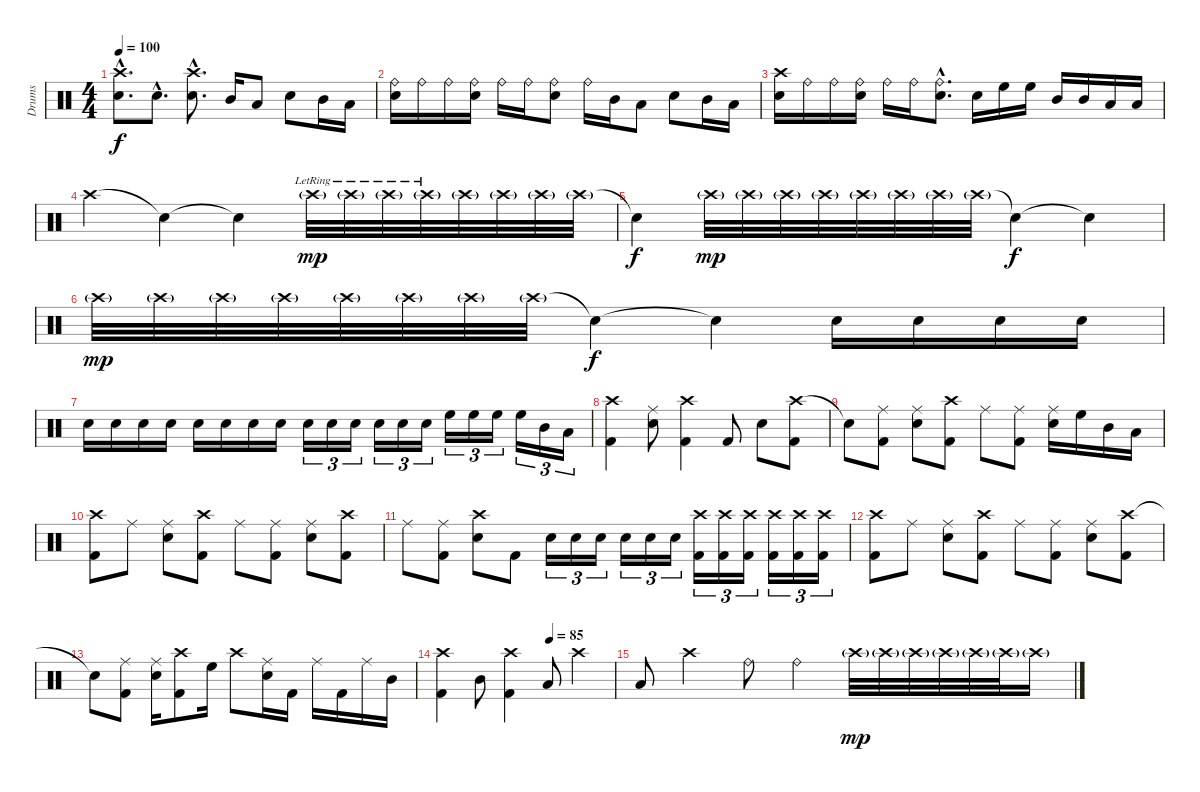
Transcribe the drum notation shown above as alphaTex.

\track ("Drums" "Drums") {instrument percussion}
\staff {score}
\articulation defaults
\ts (4 4)
\tempo 100
\clef neutral
\ks c
("Crash high (hit)"{hac} "Snare (hit) 2"{hac}).8{d dy f} "Snare (hit) 2"{hac}.8{d} ("Crash high (hit)"{hac} "Snare (hit) 2"{hac}).8{d} "Mid Tom (hit)".16 "Low Floor Tom (hit)".8 "Snare (hit) 2".8 "Mid Tom (hit)".16 "Low Floor Tom (hit)".16 |
("Ride (bell)" "Snare (hit) 2").16 "Ride (bell)".16 "Ride (bell)".16 ("Ride (bell)" "Snare (hit) 2").16 "Ride (bell)".16 "Ride (bell)".16 ("Ride (bell)" "Snare (hit) 2").8 "Ride (bell)".16 "Mid Tom (hit)".16 "Low Floor Tom (hit)".8 "Snare (hit) 2".8 "Mid Tom (hit)".16 "Low Floor Tom (hit)".16 |
("Crash high (hit)" "Snare (hit) 2").16 "Ride (bell)".16 "Ride (bell)".16 ("Ride (bell)" "Snare (hit) 2").16 "Ride (bell)".16 "Ride (bell)".16 ("Ride (bell)"{hac} "Snare (hit) 2"{hac}).8{d} "Snare (hit) 2".16 "High Floor Tom (hit)".16 "High Floor Tom (hit)".16 "Mid Tom (hit)".16 "Mid Tom (hit)".16 "Low Floor Tom (hit)".16 "Low Floor Tom (hit)".16 |
"Crash high (hit)".4 "Snare (hit)"{t}.4 "Snare (hit)"{t}.4 "Crash high (hit)"{g lr}.32{dy mp} "Crash high (hit)"{g lr}.32 "Crash high (hit)"{g lr}.32 "Crash high (hit)"{g lr}.32 "Crash high (hit)"{g}.32 "Crash high (hit)"{g}.32 "Crash high (hit)"{g}.32 "Crash high (hit)"{g}.32 |
"Snare (hit)"{t}.4{dy f} "Crash high (hit)"{g}.32{dy mp} "Crash high (hit)"{g}.32 "Crash high (hit)"{g}.32 "Crash high (hit)"{g}.32 "Crash high (hit)"{g}.32 "Crash high (hit)"{g}.32 "Crash high (hit)"{g}.32 "Crash high (hit)"{g}.32 "Snare (hit)"{t}.4{dy f} "Snare (hit)"{t}.4 |
"Crash high (hit)"{g}.32{dy mp} "Crash high (hit)"{g}.32 "Crash high (hit)"{g}.32 "Crash high (hit)"{g}.32 "Crash high (hit)"{g}.32 "Crash high (hit)"{g}.32 "Crash high (hit)"{g}.32 "Crash high (hit)"{g}.32 "Snare (hit)"{t}.4{dy f} "Snare (hit)"{t}.4 "Snare (hit) 2".16 "Snare (hit) 2".16 "Snare (hit) 2".16 "Snare (hit) 2".16 |
"Snare (hit) 2".16 "Snare (hit) 2".16 "Snare (hit) 2".16 "Snare (hit) 2".16 "Snare (hit) 2".16 "Snare (hit) 2".16 "Snare (hit) 2".16 "Snare (hit) 2".16 "Snare (hit) 2".16{tu (3 2)} "Snare (hit) 2".16{tu (3 2)} "Snare (hit) 2".16{tu (3 2)} "Snare (hit) 2".16{tu (3 2)} "Snare (hit) 2".16{tu (3 2)} "Snare (hit) 2".16{tu (3 2)} "High Floor Tom (hit)".16{tu (3 2)} "High Floor Tom (hit)".16{tu (3 2)} "High Floor Tom (hit)".16{tu (3 2)} "High Floor Tom (hit)".16{tu (3 2)} "Mid Tom (hit)".16{tu (3 2)} "Low Floor Tom (hit)".16{tu (3 2)} |
("Crash high (hit)" "Kick (hit) 2").4 ("Ride (middle)" "Snare (hit) 2").8 ("Crash high (hit)" "Kick (hit) 2").4 "Kick (hit) 2".8 "Snare (hit) 2".8 ("Crash high (hit)" "Kick (hit) 2").8 |
"Snare (hit)"{t}.8 ("Ride (middle)" "Kick (hit) 2").8 ("Ride (middle)" "Snare (hit) 2").8 ("Crash high (hit)" "Kick (hit) 2").8 "Ride (middle)".8 ("Ride (middle)" "Kick (hit) 2").8 ("Ride (middle)" "Snare (hit) 2").16 "High Floor Tom (hit)".16 "Mid Tom (hit)".16 "Low Floor Tom (hit)".16 |
("Crash high (hit)" "Kick (hit) 2").8 "Ride (middle)".8 ("Ride (middle)" "Snare (hit) 2").8 ("Crash high (hit)" "Kick (hit) 2").8 "Ride (middle)".8 ("Ride (middle)" "Kick (hit) 2").8 ("Ride (middle)" "Snare (hit) 2").8 ("Crash high (hit)" "Kick (hit) 2").8 |
"Ride (middle)".8 ("Ride (middle)" "Kick (hit) 2").8 ("Crash high (hit)" "Snare (hit) 2").8 "Kick (hit) 2".8 "Snare (hit) 2".16{tu (3 2)} "Snare (hit) 2".16{tu (3 2)} "Snare (hit) 2".16{tu (3 2)} "Snare (hit) 2".16{tu (3 2)} "Snare (hit) 2".16{tu (3 2)} "Snare (hit) 2".16{tu (3 2)} ("Crash high (hit)" "Kick (hit) 2").16{tu (3 2)} ("Crash high (hit)" "Kick (hit) 2").16{tu (3 2)} ("Crash high (hit)" "Kick (hit) 2").16{tu (3 2)} ("Crash high (hit)" "Kick (hit) 2").16{tu (3 2)} ("Crash high (hit)" "Kick (hit) 2").16{tu (3 2)} ("Crash high (hit)" "Kick (hit) 2").16{tu (3 2)} |
("Crash high (hit)" "Kick (hit) 2").8 "Ride (middle)".8 ("Ride (middle)" "Snare (hit) 2").8 ("Crash high (hit)" "Kick (hit) 2").8 "Ride (middle)".8 ("Ride (middle)" "Kick (hit) 2").8 ("Ride (middle)" "Snare (hit) 2").8 ("Crash high (hit)" "Kick (hit) 2").8 |
"Snare (hit)"{t}.8 ("Ride (middle)" "Kick (hit) 2").8 ("Ride (middle)" "Snare (hit) 2").16 ("Crash high (hit)" "Kick (hit) 2").8 "High Floor Tom (hit)".16 "Crash high (hit)".8 ("Ride (middle)" "Snare (hit) 2").16 "Kick (hit) 2".16 "Ride (middle)".16 "Kick (hit) 2".16 "Ride (middle)".16 "Mid Tom (hit)".16 |
\tempo (85 0.625)
("Crash high (hit)" "Kick (hit) 2").4 "Mid Tom (hit)".8 ("Crash high (hit)" "Kick (hit) 2").4 "Low Floor Tom (hit)".8 "Crash high (hit)".4 |
"Low Floor Tom (hit)".8 "Crash high (hit)".4 "Ride (bell)".8 "Ride (bell)".4 "Crash high (hit)"{g}.32{dy mp} "Crash high (hit)"{g}.32 "Crash high (hit)"{g}.32 "Crash high (hit)"{g}.32 "Crash high (hit)"{g}.32 "Crash high (hit)"{g}.32 "Crash high (hit)"{g}.16
